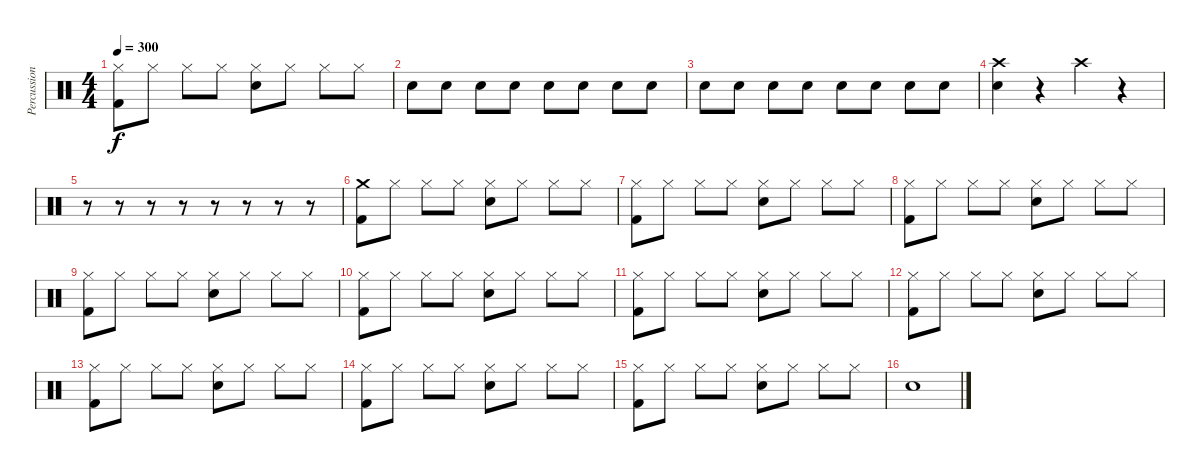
\track ("Percussion" "Percussion") {instrument percussion}
\staff {score}
\articulation defaults
\ts (4 4)
\tempo 300
\clef neutral
\ks c
("Kick (hit) 2" "Hi-Hat (closed)").8{dy f} "Hi-Hat (closed)".8 "Hi-Hat (closed)".8 "Hi-Hat (closed)".8 ("Snare (hit) 2" "Hi-Hat (closed)").8 "Hi-Hat (closed)".8 "Hi-Hat (closed)".8 "Hi-Hat (closed)".8 |
"Snare (hit) 2".8 "Snare (hit) 2".8 "Snare (hit) 2".8 "Snare (hit) 2".8 "Snare (hit) 2".8 "Snare (hit) 2".8 "Snare (hit) 2".8 "Snare (hit) 2".8 |
"Snare (hit) 2".8 "Snare (hit) 2".8 "Snare (hit) 2".8 "Snare (hit) 2".8 "Snare (hit) 2".8 "Snare (hit) 2".8 "Snare (hit) 2".8 "Snare (hit) 2".8 |
("Snare (hit) 2" "Crash high (hit)").4 r.4 "Crash high (hit)".4 r.4 |
r.8 r.8 r.8 r.8 r.8 r.8 r.8 r.8 |
("Crash medium (hit)" "Kick (hit) 2").8 "Hi-Hat (closed)".8 "Hi-Hat (closed)".8 "Hi-Hat (closed)".8 ("Snare (hit) 2" "Hi-Hat (closed)").8 "Hi-Hat (closed)".8 "Hi-Hat (closed)".8 "Hi-Hat (closed)".8 |
("Kick (hit) 2" "Hi-Hat (closed)").8 "Hi-Hat (closed)".8 "Hi-Hat (closed)".8 "Hi-Hat (closed)".8 ("Snare (hit) 2" "Hi-Hat (closed)").8 "Hi-Hat (closed)".8 "Hi-Hat (closed)".8 "Hi-Hat (closed)".8 |
("Kick (hit) 2" "Hi-Hat (closed)").8 "Hi-Hat (closed)".8 "Hi-Hat (closed)".8 "Hi-Hat (closed)".8 ("Snare (hit) 2" "Hi-Hat (closed)").8 "Hi-Hat (closed)".8 "Hi-Hat (closed)".8 "Hi-Hat (closed)".8 |
("Kick (hit) 2" "Hi-Hat (closed)").8 "Hi-Hat (closed)".8 "Hi-Hat (closed)".8 "Hi-Hat (closed)".8 ("Snare (hit) 2" "Hi-Hat (closed)").8 "Hi-Hat (closed)".8 "Hi-Hat (closed)".8 "Hi-Hat (closed)".8 |
("Kick (hit) 2" "Hi-Hat (closed)").8 "Hi-Hat (closed)".8 "Hi-Hat (closed)".8 "Hi-Hat (closed)".8 ("Snare (hit) 2" "Hi-Hat (closed)").8 "Hi-Hat (closed)".8 "Hi-Hat (closed)".8 "Hi-Hat (closed)".8 |
("Kick (hit) 2" "Hi-Hat (closed)").8 "Hi-Hat (closed)".8 "Hi-Hat (closed)".8 "Hi-Hat (closed)".8 ("Snare (hit) 2" "Hi-Hat (closed)").8 "Hi-Hat (closed)".8 "Hi-Hat (closed)".8 "Hi-Hat (closed)".8 |
("Kick (hit) 2" "Hi-Hat (closed)").8 "Hi-Hat (closed)".8 "Hi-Hat (closed)".8 "Hi-Hat (closed)".8 ("Snare (hit) 2" "Hi-Hat (closed)").8 "Hi-Hat (closed)".8 "Hi-Hat (closed)".8 "Hi-Hat (closed)".8 |
("Kick (hit) 2" "Hi-Hat (closed)").8 "Hi-Hat (closed)".8 "Hi-Hat (closed)".8 "Hi-Hat (closed)".8 ("Snare (hit) 2" "Hi-Hat (closed)").8 "Hi-Hat (closed)".8 "Hi-Hat (closed)".8 "Hi-Hat (closed)".8 |
("Kick (hit) 2" "Hi-Hat (closed)").8 "Hi-Hat (closed)".8 "Hi-Hat (closed)".8 "Hi-Hat (closed)".8 ("Snare (hit) 2" "Hi-Hat (closed)").8 "Hi-Hat (closed)".8 "Hi-Hat (closed)".8 "Hi-Hat (closed)".8 |
("Kick (hit) 2" "Hi-Hat (closed)").8 "Hi-Hat (closed)".8 "Hi-Hat (closed)".8 "Hi-Hat (closed)".8 ("Snare (hit) 2" "Hi-Hat (closed)").8 "Hi-Hat (closed)".8 "Hi-Hat (closed)".8 "Hi-Hat (closed)".8 |
"Snare (hit) 2".1
